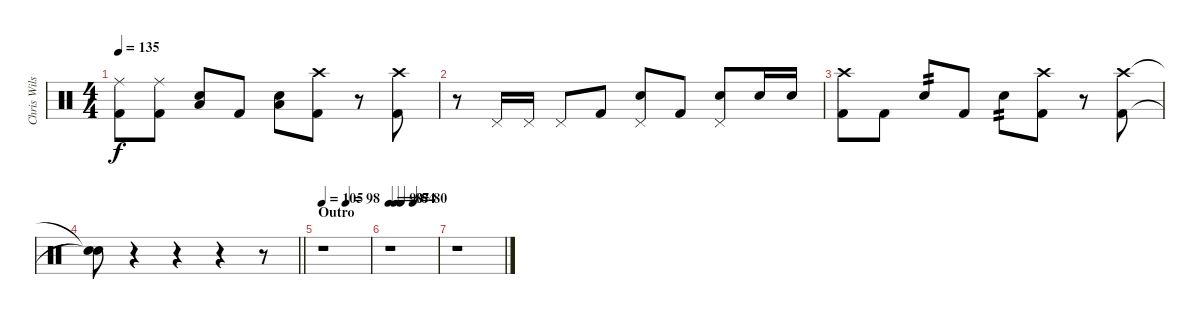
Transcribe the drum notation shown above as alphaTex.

\track ("Chris Wilson - Drums" "Chris Wils") {instrument percussion}
\staff {score}
\articulation defaults
\ts (4 4)
\tempo 135
\clef neutral
\ks c
("Ride (middle)" "Kick (hit) 2").8{dy f} ("Ride (middle)" "Kick (hit) 2").8 ("Low Floor Tom (hit)" "Snare (hit) 2").8 "Kick (hit) 2".8 ("Low Floor Tom (hit)" "Snare (hit) 2").8 ("Crash high (hit)" "Kick (hit) 2").8 r.8 ("Crash high (hit)" "Kick (hit) 2").8 |
r.8 "Pedal Hi-Hat (hit)".16 "Pedal Hi-Hat (hit)".16 "Pedal Hi-Hat (hit)".8 "Kick (hit) 2".8 ("Pedal Hi-Hat (hit)" "Snare (hit) 2").8 "Kick (hit) 2".8 ("Pedal Hi-Hat (hit)" "Snare (hit) 2").8 "Snare (hit) 2".16 "Snare (hit) 2".16 |
("Crash high (hit)" "Kick (hit) 2").8 "Kick (hit) 2".8 "Snare (hit) 2".8{tp 2} "Kick (hit) 2".8 "Snare (hit) 2".8{tp 2} ("Crash high (hit)" "Kick (hit) 2").8 r.8 ("Crash high (hit)" "Kick (hit) 2").8 |
\barLineRight lightlight
("Snare (hit)"{t} "Snare (hit)"{t}).8 r.4 r.4 r.4 r.8 |
\section ("" "Outro")
\tempo 105
\tempo (98 0.5)
r.1 |
\tempo 90
\tempo (87 0.125)
\tempo (84 0.25)
\tempo (80 0.5)
r.1 |
r.1
